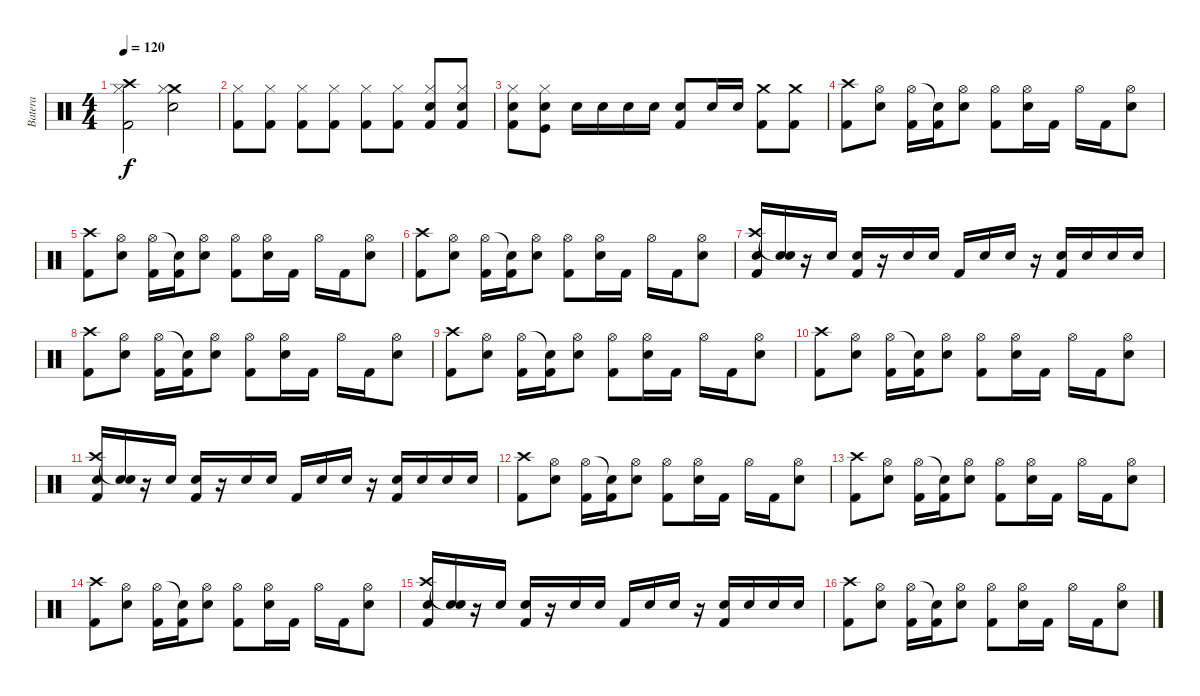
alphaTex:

\track ("Batera" "Batera") {instrument percussion}
\staff {score}
\articulation defaults
\ts (4 4)
\tempo 120
\clef neutral
\ks c
("Kick (hit) 2" "Crash high (hit)" "Hi-Hat (closed)").2{dy f} ("Crash medium (hit)" "Electric Snare (hit)" "Hi-Hat (closed)").2 |
("Kick (hit) 2" "Hi-Hat (closed)").8 ("Kick (hit) 2" "Hi-Hat (closed)").8 ("Kick (hit) 2" "Hi-Hat (closed)").8 ("Kick (hit) 2" "Hi-Hat (closed)").8 ("Kick (hit) 2" "Hi-Hat (closed)").8 ("Kick (hit) 2" "Hi-Hat (closed)").8 ("Kick (hit) 2" "Snare (hit) 2" "Hi-Hat (closed)").8 ("Kick (hit) 2" "Snare (hit) 2" "Hi-Hat (closed)").8 |
("Kick (hit) 2" "Snare (hit) 2" "Hi-Hat (closed)").8 ("Kick (hit)" "Snare (hit) 2" "Hi-Hat (closed)").8 "Snare (hit) 2".16 "Snare (hit) 2".16 "Snare (hit) 2".16 "Snare (hit) 2".16 ("Kick (hit) 2" "Snare (hit) 2").8 "Snare (hit) 2".16 "Snare (hit) 2".16 ("Kick (hit) 2" "Crash medium (hit)").8 ("Kick (hit) 2" "Crash medium (hit)").8 |
("Crash high (hit)" "Kick (hit) 2").8 ("Hi-Hat (open)" "Electric Snare (hit)").8 ("Hi-Hat (open)" "Kick (hit) 2").16 ("Snare (hit)"{t} "Kick (hit) 2").16 ("Hi-Hat (open)" "Electric Snare (hit)").8 ("Hi-Hat (open)" "Kick (hit) 2").8 ("Hi-Hat (open)" "Electric Snare (hit)").16 "Kick (hit) 2".16 "Hi-Hat (open)".16 "Kick (hit) 2".16 ("Hi-Hat (open)" "Electric Snare (hit)").8 |
("Crash high (hit)" "Kick (hit) 2").8 ("Hi-Hat (open)" "Electric Snare (hit)").8 ("Hi-Hat (open)" "Kick (hit) 2").16 ("Snare (hit)"{t} "Kick (hit) 2").16 ("Hi-Hat (open)" "Electric Snare (hit)").8 ("Hi-Hat (open)" "Kick (hit) 2").8 ("Hi-Hat (open)" "Electric Snare (hit)").16 "Kick (hit) 2".16 "Hi-Hat (open)".16 "Kick (hit) 2".16 ("Hi-Hat (open)" "Electric Snare (hit)").8 |
("Crash high (hit)" "Kick (hit) 2").8 ("Hi-Hat (open)" "Electric Snare (hit)").8 ("Hi-Hat (open)" "Kick (hit) 2").16 ("Snare (hit)"{t} "Kick (hit) 2").16 ("Hi-Hat (open)" "Electric Snare (hit)").8 ("Hi-Hat (open)" "Kick (hit) 2").8 ("Hi-Hat (open)" "Electric Snare (hit)").16 "Kick (hit) 2".16 "Hi-Hat (open)".16 "Kick (hit) 2".16 ("Hi-Hat (open)" "Electric Snare (hit)").8 |
("Crash high (hit)" "Electric Snare (hit)" "Kick (hit) 2").16 ("Snare (hit)"{t} "Electric Snare (hit)").16 r.16 "Electric Snare (hit)".16 ("Electric Snare (hit)" "Kick (hit) 2").16 r.16 "Electric Snare (hit)".16 "Electric Snare (hit)".16 "Kick (hit) 2".16 "Electric Snare (hit)".16 "Electric Snare (hit)".16 r.16 ("Electric Snare (hit)" "Kick (hit) 2").16 "Electric Snare (hit)".16 "Electric Snare (hit)".16 "Electric Snare (hit)".16 |
("Crash high (hit)" "Kick (hit) 2").8 ("Hi-Hat (open)" "Electric Snare (hit)").8 ("Hi-Hat (open)" "Kick (hit) 2").16 ("Snare (hit)"{t} "Kick (hit) 2").16 ("Hi-Hat (open)" "Electric Snare (hit)").8 ("Hi-Hat (open)" "Kick (hit) 2").8 ("Hi-Hat (open)" "Electric Snare (hit)").16 "Kick (hit) 2".16 "Hi-Hat (open)".16 "Kick (hit) 2".16 ("Hi-Hat (open)" "Electric Snare (hit)").8 |
("Crash high (hit)" "Kick (hit) 2").8 ("Hi-Hat (open)" "Electric Snare (hit)").8 ("Hi-Hat (open)" "Kick (hit) 2").16 ("Snare (hit)"{t} "Kick (hit) 2").16 ("Hi-Hat (open)" "Electric Snare (hit)").8 ("Hi-Hat (open)" "Kick (hit) 2").8 ("Hi-Hat (open)" "Electric Snare (hit)").16 "Kick (hit) 2".16 "Hi-Hat (open)".16 "Kick (hit) 2".16 ("Hi-Hat (open)" "Electric Snare (hit)").8 |
("Crash high (hit)" "Kick (hit) 2").8 ("Hi-Hat (open)" "Electric Snare (hit)").8 ("Hi-Hat (open)" "Kick (hit) 2").16 ("Snare (hit)"{t} "Kick (hit) 2").16 ("Hi-Hat (open)" "Electric Snare (hit)").8 ("Hi-Hat (open)" "Kick (hit) 2").8 ("Hi-Hat (open)" "Electric Snare (hit)").16 "Kick (hit) 2".16 "Hi-Hat (open)".16 "Kick (hit) 2".16 ("Hi-Hat (open)" "Electric Snare (hit)").8 |
("Crash high (hit)" "Electric Snare (hit)" "Kick (hit) 2").16 ("Snare (hit)"{t} "Electric Snare (hit)").16 r.16 "Electric Snare (hit)".16 ("Electric Snare (hit)" "Kick (hit) 2").16 r.16 "Electric Snare (hit)".16 "Electric Snare (hit)".16 "Kick (hit) 2".16 "Electric Snare (hit)".16 "Electric Snare (hit)".16 r.16 ("Electric Snare (hit)" "Kick (hit) 2").16 "Electric Snare (hit)".16 "Electric Snare (hit)".16 "Electric Snare (hit)".16 |
("Crash high (hit)" "Kick (hit) 2").8 ("Hi-Hat (open)" "Electric Snare (hit)").8 ("Hi-Hat (open)" "Kick (hit) 2").16 ("Snare (hit)"{t} "Kick (hit) 2").16 ("Hi-Hat (open)" "Electric Snare (hit)").8 ("Hi-Hat (open)" "Kick (hit) 2").8 ("Hi-Hat (open)" "Electric Snare (hit)").16 "Kick (hit) 2".16 "Hi-Hat (open)".16 "Kick (hit) 2".16 ("Hi-Hat (open)" "Electric Snare (hit)").8 |
("Crash high (hit)" "Kick (hit) 2").8 ("Hi-Hat (open)" "Electric Snare (hit)").8 ("Hi-Hat (open)" "Kick (hit) 2").16 ("Snare (hit)"{t} "Kick (hit) 2").16 ("Hi-Hat (open)" "Electric Snare (hit)").8 ("Hi-Hat (open)" "Kick (hit) 2").8 ("Hi-Hat (open)" "Electric Snare (hit)").16 "Kick (hit) 2".16 "Hi-Hat (open)".16 "Kick (hit) 2".16 ("Hi-Hat (open)" "Electric Snare (hit)").8 |
("Crash high (hit)" "Kick (hit) 2").8 ("Hi-Hat (open)" "Electric Snare (hit)").8 ("Hi-Hat (open)" "Kick (hit) 2").16 ("Snare (hit)"{t} "Kick (hit) 2").16 ("Hi-Hat (open)" "Electric Snare (hit)").8 ("Hi-Hat (open)" "Kick (hit) 2").8 ("Hi-Hat (open)" "Electric Snare (hit)").16 "Kick (hit) 2".16 "Hi-Hat (open)".16 "Kick (hit) 2".16 ("Hi-Hat (open)" "Electric Snare (hit)").8 |
("Crash high (hit)" "Electric Snare (hit)" "Kick (hit) 2").16 ("Snare (hit)"{t} "Electric Snare (hit)").16 r.16 "Electric Snare (hit)".16 ("Electric Snare (hit)" "Kick (hit) 2").16 r.16 "Electric Snare (hit)".16 "Electric Snare (hit)".16 "Kick (hit) 2".16 "Electric Snare (hit)".16 "Electric Snare (hit)".16 r.16 ("Electric Snare (hit)" "Kick (hit) 2").16 "Electric Snare (hit)".16 "Electric Snare (hit)".16 "Electric Snare (hit)".16 |
("Crash high (hit)" "Kick (hit) 2").8 ("Hi-Hat (open)" "Electric Snare (hit)").8 ("Hi-Hat (open)" "Kick (hit) 2").16 ("Snare (hit)"{t} "Kick (hit) 2").16 ("Hi-Hat (open)" "Electric Snare (hit)").8 ("Hi-Hat (open)" "Kick (hit) 2").8 ("Hi-Hat (open)" "Electric Snare (hit)").16 "Kick (hit) 2".16 "Hi-Hat (open)".16 "Kick (hit) 2".16 ("Hi-Hat (open)" "Electric Snare (hit)").8
